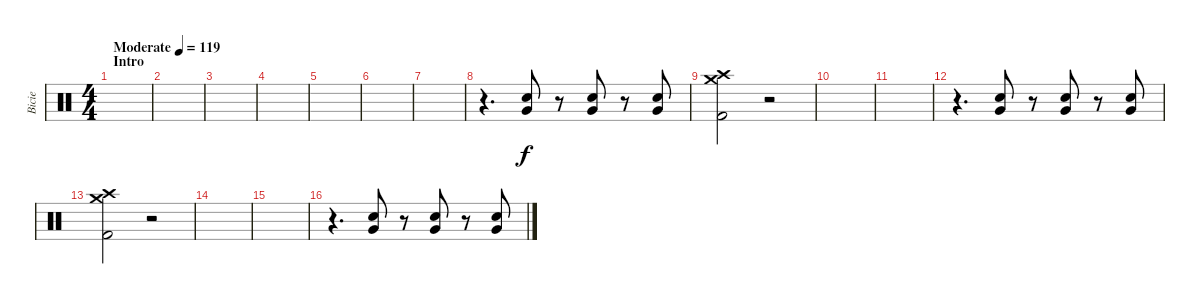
\track ("Bicie" "Bicie") {instrument percussion}
\staff {score}
\articulation defaults
\ts (4 4)
\section ("" "Intro")
\tempo (119 "Moderate")
\clef neutral
\ks c
|
|
|
|
|
|
|
r.4{d} ("Snare (hit) 2" "Very Low Tom (hit)").8 r.8 ("Snare (hit) 2" "Very Low Tom (hit)").8 r.8 ("Snare (hit) 2" "Very Low Tom (hit)").8 |
("Crash high (hit)" "Crash medium (hit)" "Kick (hit) 2").2 r.2 |
|
|
r.4{d} ("Snare (hit) 2" "Very Low Tom (hit)").8 r.8 ("Snare (hit) 2" "Very Low Tom (hit)").8 r.8 ("Snare (hit) 2" "Very Low Tom (hit)").8 |
("Crash high (hit)" "Crash medium (hit)" "Kick (hit) 2").2 r.2 |
|
|
r.4{d} ("Snare (hit) 2" "Very Low Tom (hit)").8 r.8 ("Snare (hit) 2" "Very Low Tom (hit)").8 r.8 ("Snare (hit) 2" "Very Low Tom (hit)").8
